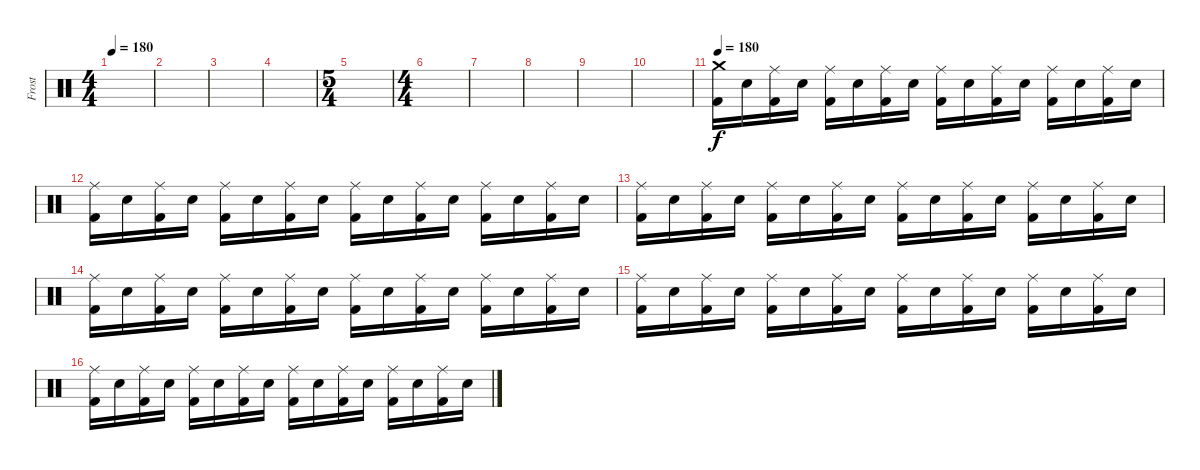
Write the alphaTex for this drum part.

\track ("Frost" "Frost") {instrument percussion}
\staff {score}
\articulation defaults
\ts (4 4)
\tempo 180
\clef neutral
\ks c
|
|
|
|
\ts (5 4)
|
\ts (4 4)
|
|
|
|
|
\tempo 180
("Crash medium (hit)" "Kick (hit) 2").16 "Electric Snare (hit)".16 ("Ride (middle)" "Kick (hit) 2").16 "Electric Snare (hit)".16 ("Ride (middle)" "Kick (hit) 2").16 "Electric Snare (hit)".16 ("Ride (middle)" "Kick (hit) 2").16 "Electric Snare (hit)".16 ("Ride (middle)" "Kick (hit) 2").16 "Electric Snare (hit)".16 ("Ride (middle)" "Kick (hit) 2").16 "Electric Snare (hit)".16 ("Ride (middle)" "Kick (hit) 2").16 "Electric Snare (hit)".16 ("Ride (middle)" "Kick (hit) 2").16 "Electric Snare (hit)".16 |
("Ride (middle)" "Kick (hit) 2").16 "Electric Snare (hit)".16 ("Ride (middle)" "Kick (hit) 2").16 "Electric Snare (hit)".16 ("Ride (middle)" "Kick (hit) 2").16 "Electric Snare (hit)".16 ("Ride (middle)" "Kick (hit) 2").16 "Electric Snare (hit)".16 ("Ride (middle)" "Kick (hit) 2").16 "Electric Snare (hit)".16 ("Ride (middle)" "Kick (hit) 2").16 "Electric Snare (hit)".16 ("Ride (middle)" "Kick (hit) 2").16 "Electric Snare (hit)".16 ("Ride (middle)" "Kick (hit) 2").16 "Electric Snare (hit)".16 |
("Ride (middle)" "Kick (hit) 2").16 "Electric Snare (hit)".16 ("Ride (middle)" "Kick (hit) 2").16 "Electric Snare (hit)".16 ("Ride (middle)" "Kick (hit) 2").16 "Electric Snare (hit)".16 ("Ride (middle)" "Kick (hit) 2").16 "Electric Snare (hit)".16 ("Ride (middle)" "Kick (hit) 2").16 "Electric Snare (hit)".16 ("Ride (middle)" "Kick (hit) 2").16 "Electric Snare (hit)".16 ("Ride (middle)" "Kick (hit) 2").16 "Electric Snare (hit)".16 ("Ride (middle)" "Kick (hit) 2").16 "Electric Snare (hit)".16 |
("Ride (middle)" "Kick (hit) 2").16 "Electric Snare (hit)".16 ("Ride (middle)" "Kick (hit) 2").16 "Electric Snare (hit)".16 ("Ride (middle)" "Kick (hit) 2").16 "Electric Snare (hit)".16 ("Ride (middle)" "Kick (hit) 2").16 "Electric Snare (hit)".16 ("Ride (middle)" "Kick (hit) 2").16 "Electric Snare (hit)".16 ("Ride (middle)" "Kick (hit) 2").16 "Electric Snare (hit)".16 ("Ride (middle)" "Kick (hit) 2").16 "Electric Snare (hit)".16 ("Ride (middle)" "Kick (hit) 2").16 "Electric Snare (hit)".16 |
("Ride (middle)" "Kick (hit) 2").16 "Electric Snare (hit)".16 ("Ride (middle)" "Kick (hit) 2").16 "Electric Snare (hit)".16 ("Ride (middle)" "Kick (hit) 2").16 "Electric Snare (hit)".16 ("Ride (middle)" "Kick (hit) 2").16 "Electric Snare (hit)".16 ("Ride (middle)" "Kick (hit) 2").16 "Electric Snare (hit)".16 ("Ride (middle)" "Kick (hit) 2").16 "Electric Snare (hit)".16 ("Ride (middle)" "Kick (hit) 2").16 "Electric Snare (hit)".16 ("Ride (middle)" "Kick (hit) 2").16 "Electric Snare (hit)".16 |
("Ride (middle)" "Kick (hit) 2").16 "Electric Snare (hit)".16 ("Ride (middle)" "Kick (hit) 2").16 "Electric Snare (hit)".16 ("Ride (middle)" "Kick (hit) 2").16 "Electric Snare (hit)".16 ("Ride (middle)" "Kick (hit) 2").16 "Electric Snare (hit)".16 ("Ride (middle)" "Kick (hit) 2").16 "Electric Snare (hit)".16 ("Ride (middle)" "Kick (hit) 2").16 "Electric Snare (hit)".16 ("Ride (middle)" "Kick (hit) 2").16 "Electric Snare (hit)".16 ("Ride (middle)" "Kick (hit) 2").16 "Electric Snare (hit)".16
